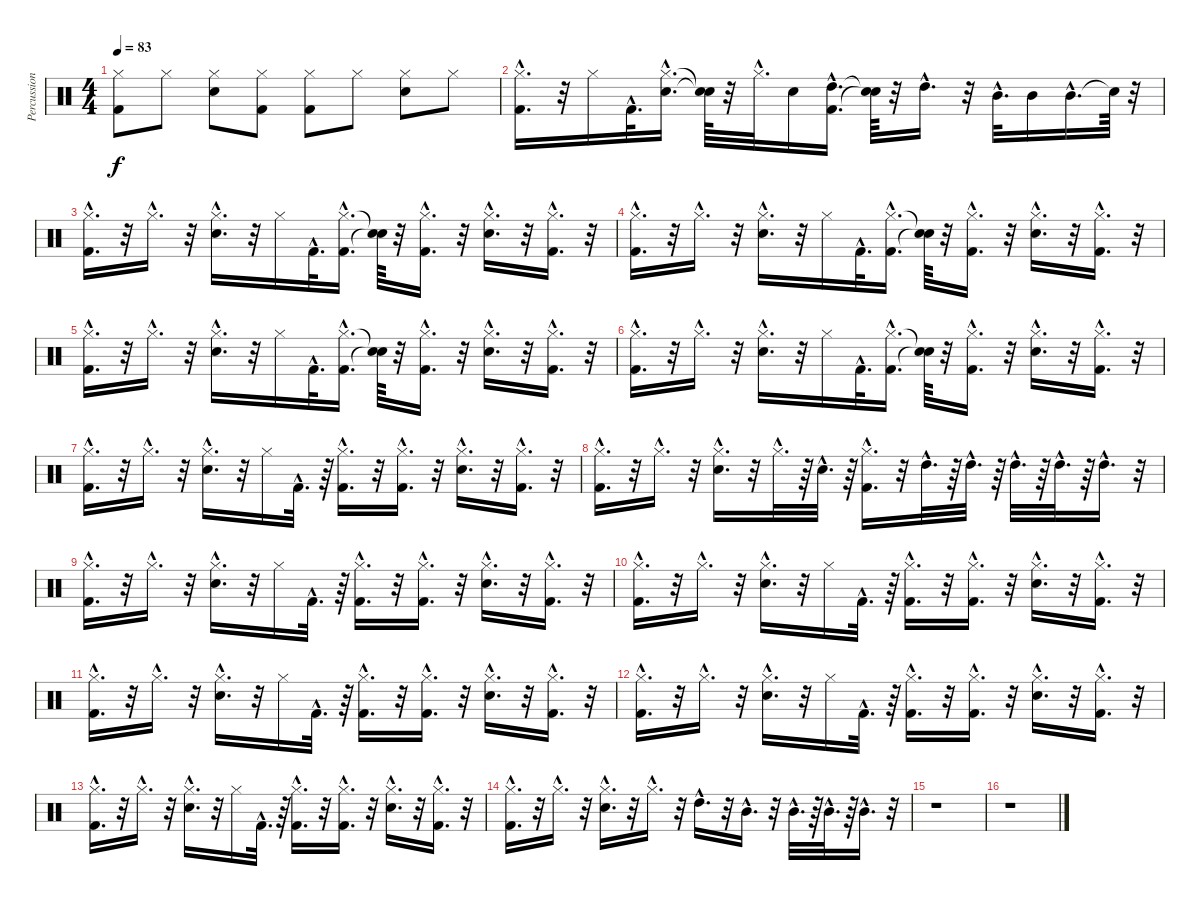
\track ("Percussion" "Percussion") {instrument percussion}
\staff {score}
\articulation defaults
\ts (4 4)
\tempo 83
\clef neutral
\ks c
("Kick (hit) 2" "Hi-Hat (closed)").8{dy f} "Hi-Hat (closed)".8 ("Hi-Hat (closed)" "Snare (hit) 2").8 ("Hi-Hat (closed)" "Kick (hit) 2").8 ("Kick (hit) 2" "Hi-Hat (closed)").8 "Hi-Hat (closed)".8 ("Hi-Hat (closed)" "Snare (hit) 2").8 "Hi-Hat (closed)".8 |
("Hi-Hat (closed)"{hac} "Kick (hit) 2"{hac}).16{d} r.32 "Hi-Hat (closed)".16 "Kick (hit) 2"{hac}.32{d} ("Snare (hit) 2"{hac} "Hi-Hat (closed)"{hac}).16{d} ("Snare (hit)"{t} "Snare (hit)"{t}).64 r.32 "Hi-Hat (closed)"{hac}.32{d} "Snare (hit) 2".16 ("Kick (hit) 2"{hac} "High Tom (hit)"{hac}).16{d} ("Snare (hit)"{t} "Snare (hit)"{t}).64 r.32 "High Tom (hit)"{hac}.16{d} r.32 "Mid Tom (hit)"{hac}.32{d} "Mid Tom (hit)".16 "Mid Tom (hit)"{hac}.16{d} "Snare (hit)"{t}.64 r.32 |
("Kick (hit) 2"{hac} "Hi-Hat (closed)"{hac}).16{d} r.32 "Hi-Hat (closed)"{hac}.16{d} r.32 ("Hi-Hat (closed)"{hac} "Snare (hit) 2"{hac}).16{d} r.32 "Hi-Hat (closed)".16 "Kick (hit) 2"{hac}.32{d} ("Hi-Hat (closed)"{hac} "Kick (hit) 2"{hac}).16{d} ("Snare (hit)"{t} "Snare (hit)"{t}).64 r.32 ("Hi-Hat (closed)"{hac} "Kick (hit) 2"{hac}).16{d} r.32 ("Snare (hit) 2"{hac} "Hi-Hat (closed)"{hac}).16{d} r.32 ("Kick (hit) 2"{hac} "Hi-Hat (closed)"{hac}).16{d} r.32 |
("Kick (hit) 2"{hac} "Hi-Hat (closed)"{hac}).16{d} r.32 "Hi-Hat (closed)"{hac}.16{d} r.32 ("Snare (hit) 2"{hac} "Hi-Hat (closed)"{hac}).16{d} r.32 "Hi-Hat (closed)".16 "Kick (hit) 2"{hac}.32{d} ("Hi-Hat (closed)"{hac} "Kick (hit) 2"{hac}).16{d} ("Snare (hit)"{t} "Snare (hit)"{t}).64 r.32 ("Hi-Hat (closed)"{hac} "Kick (hit) 2"{hac}).16{d} r.32 ("Snare (hit) 2"{hac} "Hi-Hat (closed)"{hac}).16{d} r.32 ("Hi-Hat (closed)"{hac} "Kick (hit) 2"{hac}).16{d} r.32 |
("Kick (hit) 2"{hac} "Hi-Hat (closed)"{hac}).16{d} r.32 "Hi-Hat (closed)"{hac}.16{d} r.32 ("Snare (hit) 2"{hac} "Hi-Hat (closed)"{hac}).16{d} r.32 "Hi-Hat (closed)".16 "Kick (hit) 2"{hac}.32{d} ("Hi-Hat (closed)"{hac} "Kick (hit) 2"{hac}).16{d} ("Snare (hit)"{t} "Snare (hit)"{t}).64 r.32 ("Hi-Hat (closed)"{hac} "Kick (hit) 2"{hac}).16{d} r.32 ("Snare (hit) 2"{hac} "Hi-Hat (closed)"{hac}).16{d} r.32 ("Kick (hit) 2"{hac} "Hi-Hat (closed)"{hac}).16{d} r.32 |
("Hi-Hat (closed)"{hac} "Kick (hit) 2"{hac}).16{d} r.32 "Hi-Hat (closed)"{hac}.16{d} r.32 ("Snare (hit) 2"{hac} "Hi-Hat (closed)"{hac}).16{d} r.32 "Hi-Hat (closed)".16 "Kick (hit) 2"{hac}.32{d} ("Kick (hit) 2"{hac} "Hi-Hat (closed)"{hac}).16{d} ("Snare (hit)"{t} "Snare (hit)"{t}).64 r.32 ("Hi-Hat (closed)"{hac} "Kick (hit) 2"{hac}).16{d} r.32 ("Snare (hit) 2"{hac} "Hi-Hat (closed)"{hac}).16{d} r.32 ("Kick (hit) 2"{hac} "Hi-Hat (closed)"{hac}).16{d} r.32 |
("Kick (hit) 2"{hac} "Hi-Hat (closed)"{hac}).16{d} r.32 "Hi-Hat (closed)"{hac}.16{d} r.32 ("Hi-Hat (closed)"{hac} "Snare (hit) 2"{hac}).16{d} r.32 "Hi-Hat (closed)".16 "Kick (hit) 2"{hac}.32{d} r.64 ("Hi-Hat (closed)"{hac} "Kick (hit) 2"{hac}).16{d} r.32 ("Hi-Hat (closed)"{hac} "Kick (hit) 2"{hac}).16{d} r.32 ("Snare (hit) 2"{hac} "Hi-Hat (closed)"{hac}).16{d} r.32 ("Kick (hit) 2"{hac} "Hi-Hat (closed)"{hac}).16{d} r.32 |
("Kick (hit) 2"{hac} "Hi-Hat (closed)"{hac}).16{d} r.32 "Hi-Hat (closed)"{hac}.16{d} r.32 ("Snare (hit) 2"{hac} "Hi-Hat (closed)"{hac}).16{d} r.32 "Hi-Hat (closed)"{hac}.32{d} r.64 "Snare (hit) 2"{hac}.32{d} r.64 ("Kick (hit) 2"{hac} "Hi-Hat (closed)"{hac}).16{d} r.32 "High Tom (hit)"{hac}.32{d} r.64 "High Tom (hit)"{hac}.32{d} r.64 "High Tom (hit)"{hac}.32{d} r.64 "High Tom (hit)"{hac}.32{d} r.64 "High Tom (hit)"{hac}.16{d} r.32 |
("Hi-Hat (closed)"{hac} "Kick (hit) 2"{hac}).16{d} r.32 "Hi-Hat (closed)"{hac}.16{d} r.32 ("Snare (hit) 2"{hac} "Hi-Hat (closed)"{hac}).16{d} r.32 "Hi-Hat (closed)".16 "Kick (hit) 2"{hac}.32{d} r.64 ("Hi-Hat (closed)"{hac} "Kick (hit) 2"{hac}).16{d} r.32 ("Hi-Hat (closed)"{hac} "Kick (hit) 2"{hac}).16{d} r.32 ("Snare (hit) 2"{hac} "Hi-Hat (closed)"{hac}).16{d} r.32 ("Hi-Hat (closed)"{hac} "Kick (hit) 2"{hac}).16{d} r.32 |
("Hi-Hat (closed)"{hac} "Kick (hit) 2"{hac}).16{d} r.32 "Hi-Hat (closed)"{hac}.16{d} r.32 ("Hi-Hat (closed)"{hac} "Snare (hit) 2"{hac}).16{d} r.32 "Hi-Hat (closed)".16 "Kick (hit) 2"{hac}.32{d} r.64 ("Hi-Hat (closed)"{hac} "Kick (hit) 2"{hac}).16{d} r.32 ("Hi-Hat (closed)"{hac} "Kick (hit) 2"{hac}).16{d} r.32 ("Hi-Hat (closed)"{hac} "Snare (hit) 2"{hac}).16{d} r.32 ("Kick (hit) 2"{hac} "Hi-Hat (closed)"{hac}).16{d} r.32 |
("Hi-Hat (closed)"{hac} "Kick (hit) 2"{hac}).16{d} r.32 "Hi-Hat (closed)"{hac}.16{d} r.32 ("Snare (hit) 2"{hac} "Hi-Hat (closed)"{hac}).16{d} r.32 "Hi-Hat (closed)".16 "Kick (hit) 2"{hac}.32{d} r.64 ("Hi-Hat (closed)"{hac} "Kick (hit) 2"{hac}).16{d} r.32 ("Hi-Hat (closed)"{hac} "Kick (hit) 2"{hac}).16{d} r.32 ("Hi-Hat (closed)"{hac} "Snare (hit) 2"{hac}).16{d} r.32 ("Hi-Hat (closed)"{hac} "Kick (hit) 2"{hac}).16{d} r.32 |
("Hi-Hat (closed)"{hac} "Kick (hit) 2"{hac}).16{d} r.32 "Hi-Hat (closed)"{hac}.16{d} r.32 ("Snare (hit) 2"{hac} "Hi-Hat (closed)"{hac}).16{d} r.32 "Hi-Hat (closed)".16 "Kick (hit) 2"{hac}.32{d} r.64 ("Hi-Hat (closed)"{hac} "Kick (hit) 2"{hac}).16{d} r.32 ("Hi-Hat (closed)"{hac} "Kick (hit) 2"{hac}).16{d} r.32 ("Hi-Hat (closed)"{hac} "Snare (hit) 2"{hac}).16{d} r.32 ("Kick (hit) 2"{hac} "Hi-Hat (closed)"{hac}).16{d} r.32 |
("Kick (hit) 2"{hac} "Hi-Hat (closed)"{hac}).16{d} r.32 "Hi-Hat (closed)"{hac}.16{d} r.32 ("Snare (hit) 2"{hac} "Hi-Hat (closed)"{hac}).16{d} r.32 "Hi-Hat (closed)".16 "Kick (hit) 2"{hac}.32{d} r.64 ("Hi-Hat (closed)"{hac} "Kick (hit) 2"{hac}).16{d} r.32 ("Kick (hit) 2"{hac} "Hi-Hat (closed)"{hac}).16{d} r.32 ("Hi-Hat (closed)"{hac} "Snare (hit) 2"{hac}).16{d} r.32 ("Hi-Hat (closed)"{hac} "Kick (hit) 2"{hac}).16{d} r.32 |
("Kick (hit) 2"{hac} "Hi-Hat (closed)"{hac}).16{d} r.32 "Hi-Hat (closed)"{hac}.16{d} r.32 ("Snare (hit) 2"{hac} "Hi-Hat (closed)"{hac}).16{d} r.32 "Hi-Hat (closed)"{hac}.16{d} r.32 "High Tom (hit)"{hac}.16{d} r.32 "Mid Tom (hit)"{hac}.16{d} r.32 "Mid Tom (hit)"{hac}.32{d} r.64 "Mid Tom (hit)"{hac}.32{d} r.64 "Mid Tom (hit)"{hac}.16{d} r.32 |
r.1 |
r.1
